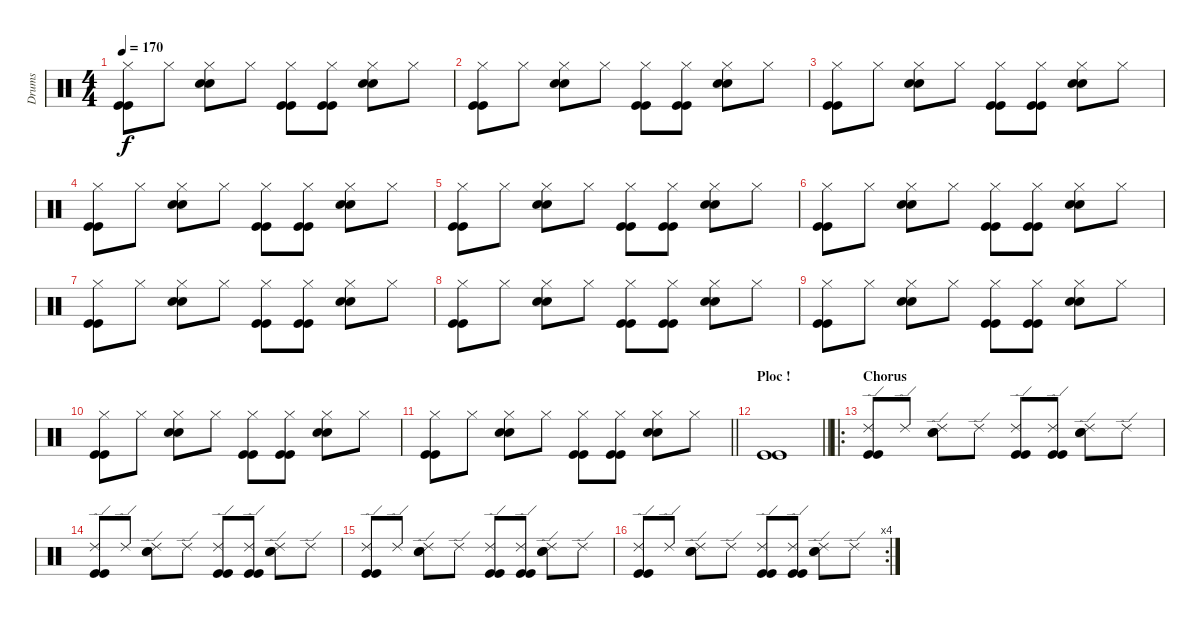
\track ("Drums" "Drums") {instrument percussion}
\staff {score}
\articulation defaults
\ts (4 4)
\tempo 170
\clef neutral
\ks c
("Hi-Hat (closed)" "Kick (hit)" "Kick (hit)").8{dy f} "Hi-Hat (closed)".8 ("Hi-Hat (closed)" "Snare (hit) 2" "Snare (hit) 2").8 "Hi-Hat (closed)".8 ("Hi-Hat (closed)" "Kick (hit)" "Kick (hit)").8 ("Hi-Hat (closed)" "Kick (hit)" "Kick (hit)").8 ("Hi-Hat (closed)" "Snare (hit) 2" "Snare (hit) 2").8 "Hi-Hat (closed)".8 |
("Hi-Hat (closed)" "Kick (hit)" "Kick (hit)").8 "Hi-Hat (closed)".8 ("Hi-Hat (closed)" "Snare (hit) 2" "Snare (hit) 2").8 "Hi-Hat (closed)".8 ("Hi-Hat (closed)" "Kick (hit)" "Kick (hit)").8 ("Hi-Hat (closed)" "Kick (hit)" "Kick (hit)").8 ("Hi-Hat (closed)" "Snare (hit) 2" "Snare (hit) 2").8 "Hi-Hat (closed)".8 |
("Hi-Hat (closed)" "Kick (hit)" "Kick (hit)").8 "Hi-Hat (closed)".8 ("Hi-Hat (closed)" "Snare (hit) 2" "Snare (hit) 2").8 "Hi-Hat (closed)".8 ("Hi-Hat (closed)" "Kick (hit)" "Kick (hit)").8 ("Hi-Hat (closed)" "Kick (hit)" "Kick (hit)").8 ("Hi-Hat (closed)" "Snare (hit) 2" "Snare (hit) 2").8 "Hi-Hat (closed)".8 |
("Hi-Hat (closed)" "Kick (hit)" "Kick (hit)").8 "Hi-Hat (closed)".8 ("Hi-Hat (closed)" "Snare (hit) 2" "Snare (hit) 2").8 "Hi-Hat (closed)".8 ("Hi-Hat (closed)" "Kick (hit)" "Kick (hit)").8 ("Hi-Hat (closed)" "Kick (hit)" "Kick (hit)").8 ("Hi-Hat (closed)" "Snare (hit) 2" "Snare (hit) 2").8 "Hi-Hat (closed)".8 |
("Hi-Hat (closed)" "Kick (hit)" "Kick (hit)").8 "Hi-Hat (closed)".8 ("Hi-Hat (closed)" "Snare (hit) 2" "Snare (hit) 2").8 "Hi-Hat (closed)".8 ("Hi-Hat (closed)" "Kick (hit)" "Kick (hit)").8 ("Hi-Hat (closed)" "Kick (hit)" "Kick (hit)").8 ("Hi-Hat (closed)" "Snare (hit) 2" "Snare (hit) 2").8 "Hi-Hat (closed)".8 |
("Hi-Hat (closed)" "Kick (hit)" "Kick (hit)").8 "Hi-Hat (closed)".8 ("Hi-Hat (closed)" "Snare (hit) 2" "Snare (hit) 2").8 "Hi-Hat (closed)".8 ("Hi-Hat (closed)" "Kick (hit)" "Kick (hit)").8 ("Hi-Hat (closed)" "Kick (hit)" "Kick (hit)").8 ("Hi-Hat (closed)" "Snare (hit) 2" "Snare (hit) 2").8 "Hi-Hat (closed)".8 |
("Hi-Hat (closed)" "Kick (hit)" "Kick (hit)").8 "Hi-Hat (closed)".8 ("Hi-Hat (closed)" "Snare (hit) 2" "Snare (hit) 2").8 "Hi-Hat (closed)".8 ("Hi-Hat (closed)" "Kick (hit)" "Kick (hit)").8 ("Hi-Hat (closed)" "Kick (hit)" "Kick (hit)").8 ("Hi-Hat (closed)" "Snare (hit) 2" "Snare (hit) 2").8 "Hi-Hat (closed)".8 |
("Hi-Hat (closed)" "Kick (hit)" "Kick (hit)").8 "Hi-Hat (closed)".8 ("Hi-Hat (closed)" "Snare (hit) 2" "Snare (hit) 2").8 "Hi-Hat (closed)".8 ("Hi-Hat (closed)" "Kick (hit)" "Kick (hit)").8 ("Hi-Hat (closed)" "Kick (hit)" "Kick (hit)").8 ("Hi-Hat (closed)" "Snare (hit) 2" "Snare (hit) 2").8 "Hi-Hat (closed)".8 |
("Hi-Hat (closed)" "Kick (hit)" "Kick (hit)").8 "Hi-Hat (closed)".8 ("Hi-Hat (closed)" "Snare (hit) 2" "Snare (hit) 2").8 "Hi-Hat (closed)".8 ("Hi-Hat (closed)" "Kick (hit)" "Kick (hit)").8 ("Hi-Hat (closed)" "Kick (hit)" "Kick (hit)").8 ("Hi-Hat (closed)" "Snare (hit) 2" "Snare (hit) 2").8 "Hi-Hat (closed)".8 |
("Hi-Hat (closed)" "Kick (hit)" "Kick (hit)").8 "Hi-Hat (closed)".8 ("Hi-Hat (closed)" "Snare (hit) 2" "Snare (hit) 2").8 "Hi-Hat (closed)".8 ("Hi-Hat (closed)" "Kick (hit)" "Kick (hit)").8 ("Hi-Hat (closed)" "Kick (hit)" "Kick (hit)").8 ("Hi-Hat (closed)" "Snare (hit) 2" "Snare (hit) 2").8 "Hi-Hat (closed)".8 |
\barLineRight lightlight
("Hi-Hat (closed)" "Kick (hit)" "Kick (hit)").8 "Hi-Hat (closed)".8 ("Hi-Hat (closed)" "Snare (hit) 2" "Snare (hit) 2").8 "Hi-Hat (closed)".8 ("Hi-Hat (closed)" "Kick (hit)" "Kick (hit)").8 ("Hi-Hat (closed)" "Kick (hit)" "Kick (hit)").8 ("Hi-Hat (closed)" "Snare (hit) 2" "Snare (hit) 2").8 "Hi-Hat (closed)".8 |
\section ("" "Ploc !")
\barLineRight lightlight
("Kick (hit)" "Kick (hit)").1 |
\ro
\section ("" "Chorus")
("Ride (edge) 2" "Kick (hit)" "Kick (hit)").8 "Ride (edge) 2".8 ("Ride (edge) 2" "Snare (hit) 2" "Snare (hit) 2").8 "Ride (edge) 2".8 ("Ride (edge) 2" "Kick (hit)" "Kick (hit)").8 ("Ride (edge) 2" "Kick (hit)" "Kick (hit)").8 ("Ride (edge) 2" "Snare (hit) 2" "Snare (hit) 2").8 "Ride (edge) 2".8 |
("Ride (edge) 2" "Kick (hit)" "Kick (hit)").8 "Ride (edge) 2".8 ("Ride (edge) 2" "Snare (hit) 2" "Snare (hit) 2").8 "Ride (edge) 2".8 ("Ride (edge) 2" "Kick (hit)" "Kick (hit)").8 ("Ride (edge) 2" "Kick (hit)" "Kick (hit)").8 ("Ride (edge) 2" "Snare (hit) 2" "Snare (hit) 2").8 "Ride (edge) 2".8 |
("Ride (edge) 2" "Kick (hit)" "Kick (hit)").8 "Ride (edge) 2".8 ("Ride (edge) 2" "Snare (hit) 2" "Snare (hit) 2").8 "Ride (edge) 2".8 ("Ride (edge) 2" "Kick (hit)" "Kick (hit)").8 ("Ride (edge) 2" "Kick (hit)" "Kick (hit)").8 ("Ride (edge) 2" "Snare (hit) 2" "Snare (hit) 2").8 "Ride (edge) 2".8 |
\rc 4
("Ride (edge) 2" "Kick (hit)" "Kick (hit)").8 "Ride (edge) 2".8 ("Ride (edge) 2" "Snare (hit) 2" "Snare (hit) 2").8 "Ride (edge) 2".8 ("Ride (edge) 2" "Kick (hit)" "Kick (hit)").8 ("Ride (edge) 2" "Kick (hit)" "Kick (hit)").8 ("Ride (edge) 2" "Snare (hit) 2" "Snare (hit) 2").8 "Ride (edge) 2".8
